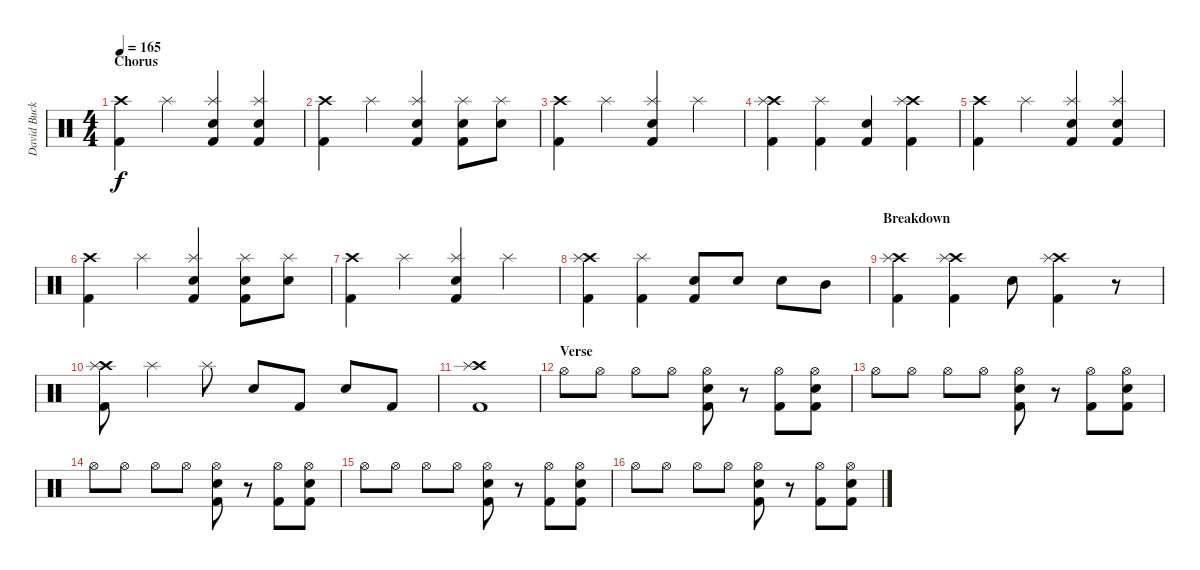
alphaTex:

\track ("David Buckner" "David Buck") {instrument percussion}
\staff {score}
\articulation defaults
\ts (4 4)
\section ("" "Chorus")
\tempo 165
\clef neutral
\ks c
("Crash high (hit)" "Kick (hit) 2").4{dy f} "Splash (hit)".4 ("Splash (hit)" "Snare (hit) 2" "Kick (hit) 2").4 ("Splash (hit)" "Snare (hit) 2" "Kick (hit) 2").4 |
("Crash high (hit)" "Kick (hit) 2").4 "Splash (hit)".4 ("Splash (hit)" "Snare (hit) 2" "Kick (hit) 2").4 ("Splash (hit)" "Snare (hit) 2" "Kick (hit) 2").8 ("Splash (hit)" "Snare (hit) 2").8 |
("Crash high (hit)" "Kick (hit) 2").4 "Splash (hit)".4 ("Splash (hit)" "Snare (hit) 2" "Kick (hit) 2").4 "Splash (hit)".4 |
("Crash high (hit)" "Splash (hit)" "Kick (hit) 2").4 ("Splash (hit)" "Kick (hit) 2").4 ("Snare (hit) 2" "Kick (hit) 2").4 ("Crash high (hit)" "Splash (hit)" "Kick (hit) 2").4 |
("Crash high (hit)" "Kick (hit) 2").4 "Splash (hit)".4 ("Splash (hit)" "Snare (hit) 2" "Kick (hit) 2").4 ("Splash (hit)" "Snare (hit) 2" "Kick (hit) 2").4 |
("Crash high (hit)" "Kick (hit) 2").4 "Splash (hit)".4 ("Splash (hit)" "Snare (hit) 2" "Kick (hit) 2").4 ("Splash (hit)" "Snare (hit) 2" "Kick (hit) 2").8 ("Splash (hit)" "Snare (hit) 2").8 |
("Crash high (hit)" "Kick (hit) 2").4 "Splash (hit)".4 ("Splash (hit)" "Snare (hit) 2" "Kick (hit) 2").4 "Splash (hit)".4 |
("Crash high (hit)" "Splash (hit)" "Kick (hit) 2").4 ("Splash (hit)" "Kick (hit) 2").4 ("Snare (hit) 2" "Kick (hit) 2").8 "Snare (hit) 2".8 "Snare (hit) 2".8 "Mid Tom (hit)".8 |
\section ("" "Breakdown")
("Crash high (hit)" "Splash (hit)" "Kick (hit) 2").4 ("Crash high (hit)" "Splash (hit)" "Kick (hit) 2").4 "Snare (hit) 2".8 ("Crash high (hit)" "Splash (hit)" "Kick (hit) 2").4 r.8 |
("Crash high (hit)" "Splash (hit)" "Kick (hit) 2").8 "Splash (hit)".4 "Splash (hit)".8 "Snare (hit) 2".8 "Kick (hit) 2".8 "Snare (hit) 2".8 "Kick (hit) 2".8 |
("Crash high (hit)" "Splash (hit)" "Kick (hit) 2").1 |
\section ("" "Verse")
"Hi-Hat (open)".8 "Hi-Hat (open)".8 "Hi-Hat (open)".8 "Hi-Hat (open)".8 ("Hi-Hat (open)" "Snare (hit) 2" "Kick (hit) 2").8 r.8 ("Hi-Hat (open)" "Kick (hit) 2").8 ("Hi-Hat (open)" "Snare (hit) 2" "Kick (hit) 2").8 |
"Hi-Hat (open)".8 "Hi-Hat (open)".8 "Hi-Hat (open)".8 "Hi-Hat (open)".8 ("Hi-Hat (open)" "Snare (hit) 2" "Kick (hit) 2").8 r.8 ("Hi-Hat (open)" "Kick (hit) 2").8 ("Hi-Hat (open)" "Snare (hit) 2" "Kick (hit) 2").8 |
"Hi-Hat (open)".8 "Hi-Hat (open)".8 "Hi-Hat (open)".8 "Hi-Hat (open)".8 ("Hi-Hat (open)" "Snare (hit) 2" "Kick (hit) 2").8 r.8 ("Hi-Hat (open)" "Kick (hit) 2").8 ("Hi-Hat (open)" "Snare (hit) 2" "Kick (hit) 2").8 |
"Hi-Hat (open)".8 "Hi-Hat (open)".8 "Hi-Hat (open)".8 "Hi-Hat (open)".8 ("Hi-Hat (open)" "Snare (hit) 2" "Kick (hit) 2").8 r.8 ("Hi-Hat (open)" "Kick (hit) 2").8 ("Hi-Hat (open)" "Snare (hit) 2" "Kick (hit) 2").8 |
"Hi-Hat (open)".8 "Hi-Hat (open)".8 "Hi-Hat (open)".8 "Hi-Hat (open)".8 ("Hi-Hat (open)" "Snare (hit) 2" "Kick (hit) 2").8 r.8 ("Hi-Hat (open)" "Kick (hit) 2").8 ("Hi-Hat (open)" "Snare (hit) 2" "Kick (hit) 2").8
